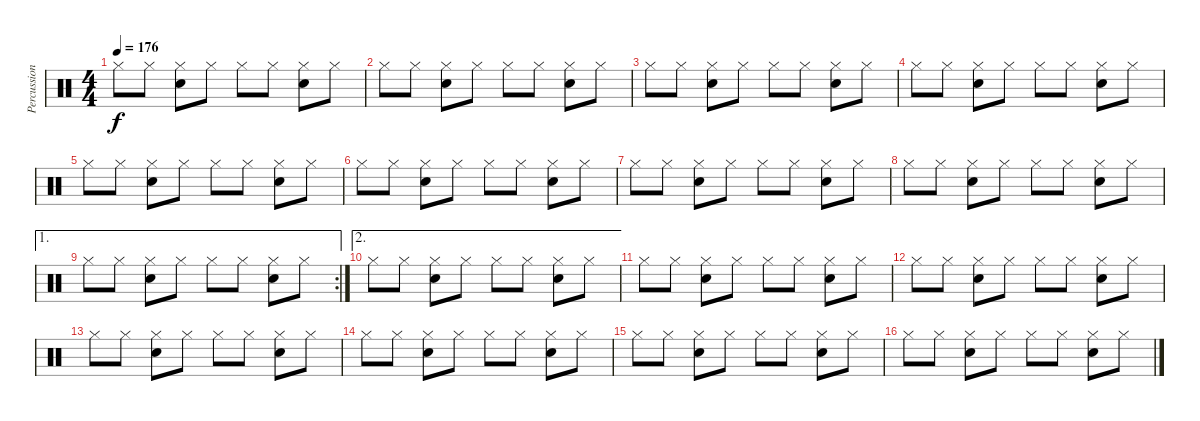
\track ("Percussions" "Percussion") {instrument percussion}
\staff {score}
\articulation defaults
\ts (4 4)
\tempo 176
\clef neutral
\ks c "Hi-Hat (closed)".8{dy f} "Hi-Hat (closed)".8
("Hi-Hat (closed)" "Snare (hit) 2").8 "Hi-Hat (closed)".8 "Hi-Hat (closed)".8 "Hi-Hat (closed)".8 ("Hi-Hat (closed)" "Snare (hit) 2").8 "Hi-Hat (closed)".8 |
"Hi-Hat (closed)".8 "Hi-Hat (closed)".8 ("Hi-Hat (closed)" "Snare (hit) 2").8 "Hi-Hat (closed)".8 "Hi-Hat (closed)".8 "Hi-Hat (closed)".8 ("Hi-Hat (closed)" "Snare (hit) 2").8 "Hi-Hat (closed)".8 |
"Hi-Hat (closed)".8 "Hi-Hat (closed)".8 ("Hi-Hat (closed)" "Snare (hit) 2").8 "Hi-Hat (closed)".8 "Hi-Hat (closed)".8 "Hi-Hat (closed)".8 ("Hi-Hat (closed)" "Snare (hit) 2").8 "Hi-Hat (closed)".8 |
"Hi-Hat (closed)".8 "Hi-Hat (closed)".8 ("Hi-Hat (closed)" "Snare (hit) 2").8 "Hi-Hat (closed)".8 "Hi-Hat (closed)".8 "Hi-Hat (closed)".8 ("Hi-Hat (closed)" "Snare (hit) 2").8 "Hi-Hat (closed)".8 |
"Hi-Hat (closed)".8 "Hi-Hat (closed)".8 ("Hi-Hat (closed)" "Snare (hit) 2").8 "Hi-Hat (closed)".8 "Hi-Hat (closed)".8 "Hi-Hat (closed)".8 ("Hi-Hat (closed)" "Snare (hit) 2").8 "Hi-Hat (closed)".8 |
"Hi-Hat (closed)".8 "Hi-Hat (closed)".8 ("Hi-Hat (closed)" "Snare (hit) 2").8 "Hi-Hat (closed)".8 "Hi-Hat (closed)".8 "Hi-Hat (closed)".8 ("Hi-Hat (closed)" "Snare (hit) 2").8 "Hi-Hat (closed)".8 |
"Hi-Hat (closed)".8 "Hi-Hat (closed)".8 ("Hi-Hat (closed)" "Snare (hit) 2").8 "Hi-Hat (closed)".8 "Hi-Hat (closed)".8 "Hi-Hat (closed)".8 ("Hi-Hat (closed)" "Snare (hit) 2").8 "Hi-Hat (closed)".8 |
"Hi-Hat (closed)".8 "Hi-Hat (closed)".8 ("Hi-Hat (closed)" "Snare (hit) 2").8 "Hi-Hat (closed)".8 "Hi-Hat (closed)".8 "Hi-Hat (closed)".8 ("Hi-Hat (closed)" "Snare (hit) 2").8 "Hi-Hat (closed)".8 |
\ae 1
\rc 2 "Hi-Hat (closed)".8 "Hi-Hat (closed)".8
("Hi-Hat (closed)" "Snare (hit) 2").8 "Hi-Hat (closed)".8 "Hi-Hat (closed)".8 "Hi-Hat (closed)".8 ("Hi-Hat (closed)" "Snare (hit) 2").8 "Hi-Hat (closed)".8 |
\ae 2 "Hi-Hat (closed)".8 "Hi-Hat (closed)".8
("Hi-Hat (closed)" "Snare (hit) 2").8 "Hi-Hat (closed)".8 "Hi-Hat (closed)".8 "Hi-Hat (closed)".8 ("Hi-Hat (closed)" "Snare (hit) 2").8 "Hi-Hat (closed)".8 |
"Hi-Hat (closed)".8 "Hi-Hat (closed)".8 ("Hi-Hat (closed)" "Snare (hit) 2").8 "Hi-Hat (closed)".8 "Hi-Hat (closed)".8 "Hi-Hat (closed)".8 ("Hi-Hat (closed)" "Snare (hit) 2").8 "Hi-Hat (closed)".8 |
"Hi-Hat (closed)".8 "Hi-Hat (closed)".8 ("Hi-Hat (closed)" "Snare (hit) 2").8 "Hi-Hat (closed)".8 "Hi-Hat (closed)".8 "Hi-Hat (closed)".8 ("Hi-Hat (closed)" "Snare (hit) 2").8 "Hi-Hat (closed)".8 |
"Hi-Hat (closed)".8 "Hi-Hat (closed)".8 ("Hi-Hat (closed)" "Snare (hit) 2").8 "Hi-Hat (closed)".8 "Hi-Hat (closed)".8 "Hi-Hat (closed)".8 ("Hi-Hat (closed)" "Snare (hit) 2").8 "Hi-Hat (closed)".8 |
"Hi-Hat (closed)".8 "Hi-Hat (closed)".8 ("Hi-Hat (closed)" "Snare (hit) 2").8 "Hi-Hat (closed)".8 "Hi-Hat (closed)".8 "Hi-Hat (closed)".8 ("Hi-Hat (closed)" "Snare (hit) 2").8 "Hi-Hat (closed)".8 |
"Hi-Hat (closed)".8 "Hi-Hat (closed)".8 ("Hi-Hat (closed)" "Snare (hit) 2").8 "Hi-Hat (closed)".8 "Hi-Hat (closed)".8 "Hi-Hat (closed)".8 ("Hi-Hat (closed)" "Snare (hit) 2").8 "Hi-Hat (closed)".8 |
"Hi-Hat (closed)".8 "Hi-Hat (closed)".8 ("Hi-Hat (closed)" "Snare (hit) 2").8 "Hi-Hat (closed)".8 "Hi-Hat (closed)".8 "Hi-Hat (closed)".8 ("Hi-Hat (closed)" "Snare (hit) 2").8 "Hi-Hat (closed)".8
